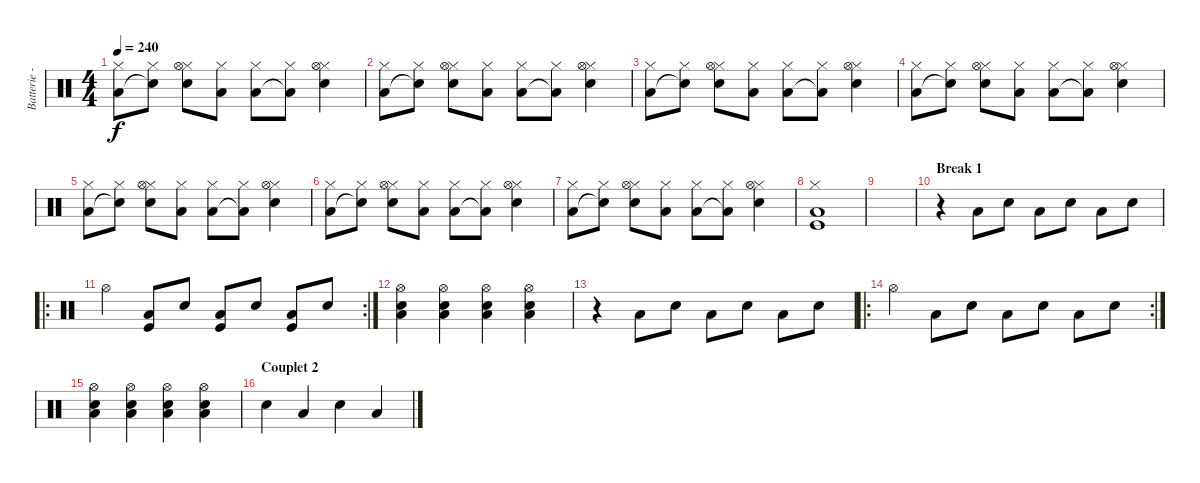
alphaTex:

\track ("Batterie - Guillaume" "Batterie -") {instrument percussion}
\staff {score}
\articulation defaults
\ts (4 4)
\tempo 240
\clef neutral
\ks c
("Hi-Hat (closed)" "Low Tom (hit)").8{dy f} ("Hi-Hat (closed)" "Snare (hit)"{t}).8 ("Hi-Hat (closed)" "Hi-Hat (open)" "Electric Snare (hit)").8 ("Hi-Hat (closed)" "Low Tom (hit)").8 ("Hi-Hat (closed)" "Low Tom (hit)").8 ("Hi-Hat (closed)" "Low Tom (hit)"{t}).8 ("Hi-Hat (closed)" "Hi-Hat (open)" "Electric Snare (hit)").4 |
("Hi-Hat (closed)" "Low Tom (hit)").8 ("Hi-Hat (closed)" "Snare (hit)"{t}).8 ("Hi-Hat (closed)" "Hi-Hat (open)" "Electric Snare (hit)").8 ("Hi-Hat (closed)" "Low Tom (hit)").8 ("Hi-Hat (closed)" "Low Tom (hit)").8 ("Hi-Hat (closed)" "Low Tom (hit)"{t}).8 ("Hi-Hat (closed)" "Hi-Hat (open)" "Electric Snare (hit)").4 |
("Hi-Hat (closed)" "Low Tom (hit)").8 ("Hi-Hat (closed)" "Snare (hit)"{t}).8 ("Hi-Hat (closed)" "Hi-Hat (open)" "Electric Snare (hit)").8 ("Hi-Hat (closed)" "Low Tom (hit)").8 ("Hi-Hat (closed)" "Low Tom (hit)").8 ("Hi-Hat (closed)" "Low Tom (hit)"{t}).8 ("Hi-Hat (closed)" "Hi-Hat (open)" "Electric Snare (hit)").4 |
("Hi-Hat (closed)" "Low Tom (hit)").8 ("Hi-Hat (closed)" "Snare (hit)"{t}).8 ("Hi-Hat (closed)" "Hi-Hat (open)" "Electric Snare (hit)").8 ("Hi-Hat (closed)" "Low Tom (hit)").8 ("Hi-Hat (closed)" "Low Tom (hit)").8 ("Hi-Hat (closed)" "Low Tom (hit)"{t}).8 ("Hi-Hat (closed)" "Hi-Hat (open)" "Electric Snare (hit)").4 |
("Hi-Hat (closed)" "Low Tom (hit)").8 ("Hi-Hat (closed)" "Snare (hit)"{t}).8 ("Hi-Hat (closed)" "Hi-Hat (open)" "Electric Snare (hit)").8 ("Hi-Hat (closed)" "Low Tom (hit)").8 ("Hi-Hat (closed)" "Low Tom (hit)").8 ("Hi-Hat (closed)" "Low Tom (hit)"{t}).8 ("Hi-Hat (closed)" "Hi-Hat (open)" "Electric Snare (hit)").4 |
("Hi-Hat (closed)" "Low Tom (hit)").8 ("Hi-Hat (closed)" "Snare (hit)"{t}).8 ("Hi-Hat (closed)" "Hi-Hat (open)" "Electric Snare (hit)").8 ("Hi-Hat (closed)" "Low Tom (hit)").8 ("Hi-Hat (closed)" "Low Tom (hit)").8 ("Hi-Hat (closed)" "Low Tom (hit)"{t}).8 ("Hi-Hat (closed)" "Hi-Hat (open)" "Electric Snare (hit)").4 |
("Hi-Hat (closed)" "Low Tom (hit)").8 ("Hi-Hat (closed)" "Snare (hit)"{t}).8 ("Hi-Hat (closed)" "Hi-Hat (open)" "Electric Snare (hit)").8 ("Hi-Hat (closed)" "Low Tom (hit)").8 ("Hi-Hat (closed)" "Low Tom (hit)").8 ("Hi-Hat (closed)" "Low Tom (hit)"{t}).8 ("Hi-Hat (closed)" "Hi-Hat (open)" "Electric Snare (hit)").4 |
("Hi-Hat (closed)" "Low Tom (hit)" "Kick (hit)").1 |
|
\section ("" "Break 1")
r.4 "Low Tom (hit)".8 "Electric Snare (hit)".8 "Low Tom (hit)".8 "Electric Snare (hit)".8 "Low Tom (hit)".8 "Electric Snare (hit)".8 |
\ro
\rc 2 "Hi-Hat (open)".4
("Low Tom (hit)" "Kick (hit)").8 "Electric Snare (hit)".8 ("Low Tom (hit)" "Kick (hit)").8 "Electric Snare (hit)".8 ("Low Tom (hit)" "Kick (hit)").8 "Electric Snare (hit)".8 |
("Hi-Hat (open)" "Low Tom (hit)" "Electric Snare (hit)").4 ("Hi-Hat (open)" "Low Tom (hit)" "Electric Snare (hit)").4 ("Hi-Hat (open)" "Low Tom (hit)" "Electric Snare (hit)").4 ("Hi-Hat (open)" "Low Tom (hit)" "Electric Snare (hit)").4 |
r.4 "Low Tom (hit)".8 "Electric Snare (hit)".8 "Low Tom (hit)".8 "Electric Snare (hit)".8 "Low Tom (hit)".8 "Electric Snare (hit)".8 |
\ro
\rc 2 "Hi-Hat (open)".4 "Low Tom (hit)".8 "Electric Snare (hit)".8 "Low Tom (hit)".8 "Electric Snare (hit)".8 "Low Tom (hit)".8 "Electric Snare (hit)".8
|
("Hi-Hat (open)" "Low Tom (hit)" "Electric Snare (hit)").4 ("Hi-Hat (open)" "Low Tom (hit)" "Electric Snare (hit)").4 ("Hi-Hat (open)" "Low Tom (hit)" "Electric Snare (hit)").4 ("Hi-Hat (open)" "Low Tom (hit)" "Electric Snare (hit)").4 |
\section ("" "Couplet 2")
"Electric Snare (hit)".4 "Low Tom (hit)".4 "Electric Snare (hit)".4 "Low Tom (hit)".4
